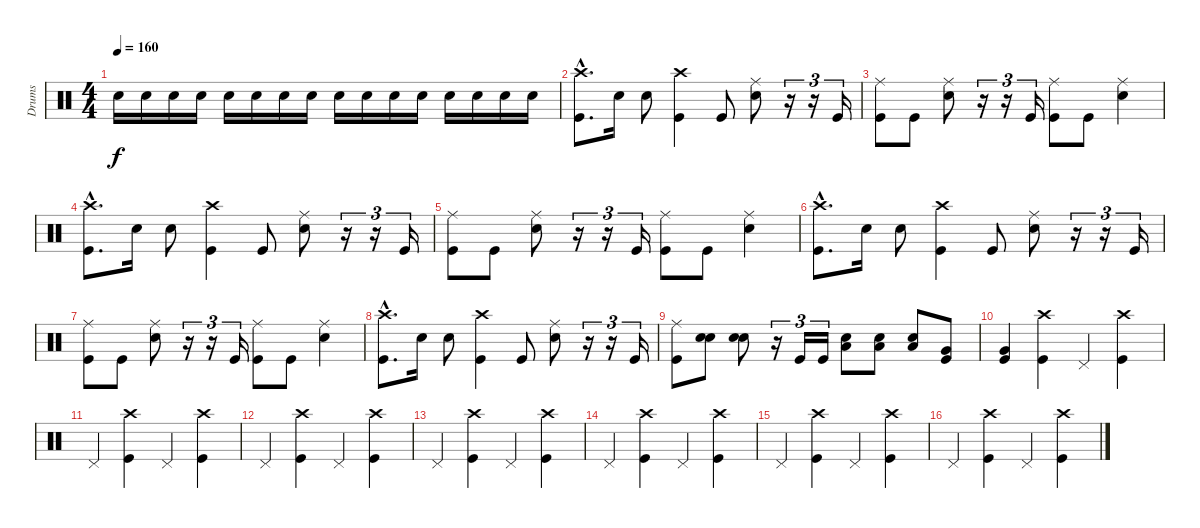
\track ("Drums" "Drums") {instrument percussion}
\staff {score}
\articulation defaults
\ts (4 4)
\tempo 160
\clef neutral
\ks c "Snare (hit) 2".16{dy f} "Snare (hit) 2".16 "Snare (hit) 2".16 "Snare (hit) 2".16 "Snare (hit) 2".16 "Snare (hit) 2".16 "Snare (hit) 2".16 "Snare (hit) 2".16 "Snare (hit) 2".16 "Snare (hit) 2".16 "Snare (hit) 2".16 "Snare (hit) 2".16 "Snare (hit) 2".16 "Snare (hit) 2".16 "Snare (hit) 2".16 "Snare (hit) 2".16
|
("Crash high (hit)"{hac} "Kick (hit)"{hac}).8{d} "Snare (hit) 2".16 "Snare (hit) 2".8 ("Crash high (hit)" "Kick (hit)").4 "Kick (hit)".8 ("Ride (middle)" "Snare (hit) 2").8 r.16{tu (3 2)} r.16{tu (3 2)} "Kick (hit)".16{tu (3 2)} |
("Ride (middle)" "Kick (hit)").8 "Kick (hit)".8 ("Ride (middle)" "Snare (hit) 2").8 r.16{tu (3 2)} r.16{tu (3 2)} "Kick (hit)".16{tu (3 2)} ("Ride (middle)" "Kick (hit)").8 "Kick (hit)".8 ("Ride (middle)" "Snare (hit) 2").4 |
("Crash high (hit)"{hac} "Kick (hit)"{hac}).8{d} "Snare (hit) 2".16 "Snare (hit) 2".8 ("Crash high (hit)" "Kick (hit)").4 "Kick (hit)".8 ("Ride (middle)" "Snare (hit) 2").8 r.16{tu (3 2)} r.16{tu (3 2)} "Kick (hit)".16{tu (3 2)} |
("Ride (middle)" "Kick (hit)").8 "Kick (hit)".8 ("Ride (middle)" "Snare (hit) 2").8 r.16{tu (3 2)} r.16{tu (3 2)} "Kick (hit)".16{tu (3 2)} ("Ride (middle)" "Kick (hit)").8 "Kick (hit)".8 ("Ride (middle)" "Snare (hit) 2").4 |
("Crash high (hit)"{hac} "Kick (hit)"{hac}).8{d} "Snare (hit) 2".16 "Snare (hit) 2".8 ("Crash high (hit)" "Kick (hit)").4 "Kick (hit)".8 ("Ride (middle)" "Snare (hit) 2").8 r.16{tu (3 2)} r.16{tu (3 2)} "Kick (hit)".16{tu (3 2)} |
("Ride (middle)" "Kick (hit)").8 "Kick (hit)".8 ("Ride (middle)" "Snare (hit) 2").8 r.16{tu (3 2)} r.16{tu (3 2)} "Kick (hit)".16{tu (3 2)} ("Ride (middle)" "Kick (hit)").8 "Kick (hit)".8 ("Ride (middle)" "Snare (hit) 2").4 |
("Crash high (hit)"{hac} "Kick (hit)"{hac}).8{d} "Snare (hit) 2".16 "Snare (hit) 2".8 ("Crash high (hit)" "Kick (hit)").4 "Kick (hit)".8 ("Ride (middle)" "Snare (hit) 2").8 r.16{tu (3 2)} r.16{tu (3 2)} "Kick (hit)".16{tu (3 2)} |
("Ride (middle)" "Kick (hit)").8 ("Snare (hit) 2" "Electric Snare (hit)").8 ("Snare (hit) 2" "Electric Snare (hit)").8 r.16{tu (3 2)} "Kick (hit)".16{tu (3 2)} "Kick (hit)".16{tu (3 2)} ("Snare (hit) 2" "Low Tom (hit)").8 ("Snare (hit) 2" "Low Tom (hit)").8 ("Snare (hit) 2" "Low Tom (hit)").8 ("Kick (hit)" "Very Low Tom (hit)").8 |
("Kick (hit)" "Very Low Tom (hit)").4 ("Crash high (hit)" "Kick (hit)").4 "Pedal Hi-Hat (hit)".4 ("Crash high (hit)" "Kick (hit)").4 |
"Pedal Hi-Hat (hit)".4 ("Crash high (hit)" "Kick (hit)").4 "Pedal Hi-Hat (hit)".4 ("Crash high (hit)" "Kick (hit)").4 |
"Pedal Hi-Hat (hit)".4 ("Crash high (hit)" "Kick (hit)").4 "Pedal Hi-Hat (hit)".4 ("Crash high (hit)" "Kick (hit)").4 |
"Pedal Hi-Hat (hit)".4 ("Crash high (hit)" "Kick (hit)").4 "Pedal Hi-Hat (hit)".4 ("Crash high (hit)" "Kick (hit)").4 |
"Pedal Hi-Hat (hit)".4 ("Crash high (hit)" "Kick (hit)").4 "Pedal Hi-Hat (hit)".4 ("Crash high (hit)" "Kick (hit)").4 |
"Pedal Hi-Hat (hit)".4 ("Crash high (hit)" "Kick (hit)").4 "Pedal Hi-Hat (hit)".4 ("Crash high (hit)" "Kick (hit)").4 |
"Pedal Hi-Hat (hit)".4 ("Crash high (hit)" "Kick (hit)").4 "Pedal Hi-Hat (hit)".4 ("Crash high (hit)" "Kick (hit)").4
